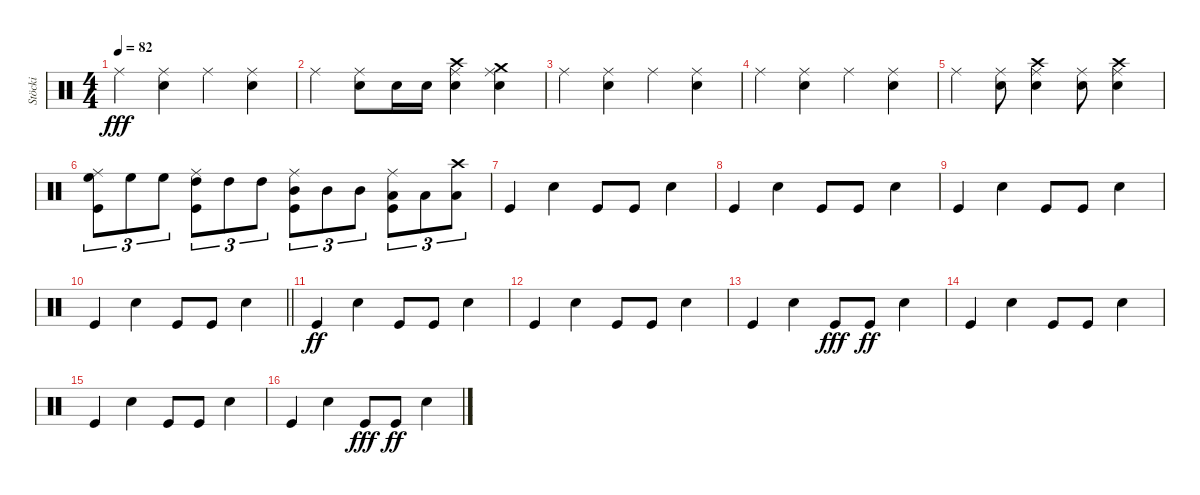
\track ("Stöcki" "Stöcki") {instrument percussion}
\staff {score}
\articulation defaults
\ts (4 4)
\tempo 82
\clef neutral
\ks c "Ride (middle)".4{dy fff}
("Ride (middle)" "Snare (hit) 2").4 "Ride (middle)".4 ("Ride (middle)" "Snare (hit) 2").4 |
"Ride (middle)".4 ("Ride (middle)" "Snare (hit) 2").8 "Snare (hit) 2".16 "Snare (hit) 2".16 ("Ride (middle)" "Snare (hit) 2" "Crash high (hit)").4 ("Ride (middle)" "Snare (hit) 2" "Crash medium (hit)").4 |
"Ride (middle)".4 ("Ride (middle)" "Snare (hit) 2").4 "Ride (middle)".4 ("Ride (middle)" "Snare (hit) 2").4 |
"Ride (middle)".4 ("Ride (middle)" "Snare (hit) 2").4 "Ride (middle)".4 ("Ride (middle)" "Snare (hit) 2").4 |
"Ride (middle)".4 ("Ride (middle)" "Snare (hit) 2").8 ("Ride (middle)" "Snare (hit) 2" "Crash high (hit)").4 ("Ride (middle)" "Snare (hit) 2").8 ("Ride (middle)" "Snare (hit) 2" "Crash high (hit)").4 |
("High Floor Tom (hit)" "Kick (hit)" "Ride (middle)").8{tu (3 2)} "High Floor Tom (hit)".8{tu (3 2)} "High Floor Tom (hit)".8{tu (3 2)} ("High Tom (hit)" "Kick (hit)" "Ride (middle)").8{tu (3 2)} "High Tom (hit)".8{tu (3 2)} "High Tom (hit)".8{tu (3 2)} ("Mid Tom (hit)" "Kick (hit)" "Ride (middle)").8{tu (3 2)} "Mid Tom (hit)".8{tu (3 2)} "Mid Tom (hit)".8{tu (3 2)} ("Low Tom (hit)" "Kick (hit)" "Ride (middle)").8{tu (3 2)} "Low Tom (hit)".8{tu (3 2)} ("Low Tom (hit)" "Crash high (hit)").8{tu (3 2)} |
"Kick (hit)".4 "Snare (hit) 2".4 "Kick (hit)".8 "Kick (hit)".8 "Snare (hit) 2".4 |
"Kick (hit)".4 "Snare (hit) 2".4 "Kick (hit)".8 "Kick (hit)".8 "Snare (hit) 2".4 |
"Kick (hit)".4 "Snare (hit) 2".4 "Kick (hit)".8 "Kick (hit)".8 "Snare (hit) 2".4 |
\barLineRight lightlight "Kick (hit)".4 "Snare (hit) 2".4 "Kick (hit)".8 "Kick (hit)".8 "Snare (hit) 2".4
|
"Kick (hit)".4{dy ff} "Snare (hit) 2".4 "Kick (hit)".8 "Kick (hit)".8 "Snare (hit) 2".4 |
"Kick (hit)".4 "Snare (hit) 2".4 "Kick (hit)".8 "Kick (hit)".8 "Snare (hit) 2".4 |
"Kick (hit)".4 "Snare (hit) 2".4 "Kick (hit)".8{dy fff} "Kick (hit)".8{dy ff} "Snare (hit) 2".4 |
"Kick (hit)".4 "Snare (hit) 2".4 "Kick (hit)".8 "Kick (hit)".8 "Snare (hit) 2".4 |
"Kick (hit)".4 "Snare (hit) 2".4 "Kick (hit)".8 "Kick (hit)".8 "Snare (hit) 2".4 |
"Kick (hit)".4 "Snare (hit) 2".4 "Kick (hit)".8{dy fff} "Kick (hit)".8{dy ff} "Snare (hit) 2".4
